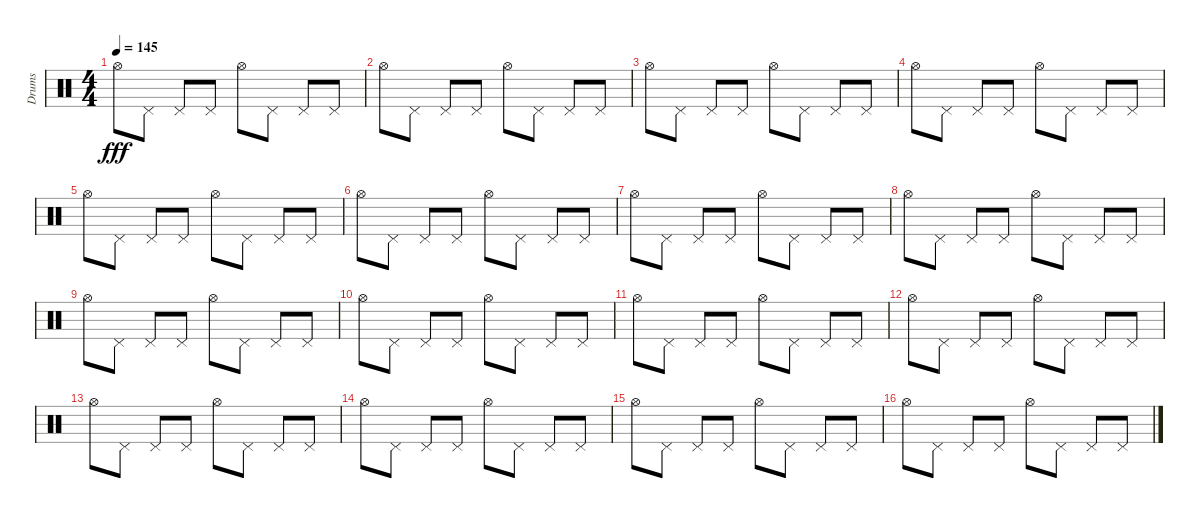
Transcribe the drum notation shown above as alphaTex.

\track ("Drums" "Drums") {instrument percussion}
\staff {score}
\articulation defaults
\ts (4 4)
\tempo 145
\clef neutral
\ks c "Hi-Hat (open)".8{dy fff} "Pedal Hi-Hat (hit)".8 "Pedal Hi-Hat (hit)".8 "Pedal Hi-Hat (hit)".8 "Hi-Hat (open)".8 "Pedal Hi-Hat (hit)".8 "Pedal Hi-Hat (hit)".8 "Pedal Hi-Hat (hit)".8
|
"Hi-Hat (open)".8 "Pedal Hi-Hat (hit)".8 "Pedal Hi-Hat (hit)".8 "Pedal Hi-Hat (hit)".8 "Hi-Hat (open)".8 "Pedal Hi-Hat (hit)".8 "Pedal Hi-Hat (hit)".8 "Pedal Hi-Hat (hit)".8 |
"Hi-Hat (open)".8 "Pedal Hi-Hat (hit)".8 "Pedal Hi-Hat (hit)".8 "Pedal Hi-Hat (hit)".8 "Hi-Hat (open)".8 "Pedal Hi-Hat (hit)".8 "Pedal Hi-Hat (hit)".8 "Pedal Hi-Hat (hit)".8 |
"Hi-Hat (open)".8 "Pedal Hi-Hat (hit)".8 "Pedal Hi-Hat (hit)".8 "Pedal Hi-Hat (hit)".8 "Hi-Hat (open)".8 "Pedal Hi-Hat (hit)".8 "Pedal Hi-Hat (hit)".8 "Pedal Hi-Hat (hit)".8 |
"Hi-Hat (open)".8 "Pedal Hi-Hat (hit)".8 "Pedal Hi-Hat (hit)".8 "Pedal Hi-Hat (hit)".8 "Hi-Hat (open)".8 "Pedal Hi-Hat (hit)".8 "Pedal Hi-Hat (hit)".8 "Pedal Hi-Hat (hit)".8 |
"Hi-Hat (open)".8 "Pedal Hi-Hat (hit)".8 "Pedal Hi-Hat (hit)".8 "Pedal Hi-Hat (hit)".8 "Hi-Hat (open)".8 "Pedal Hi-Hat (hit)".8 "Pedal Hi-Hat (hit)".8 "Pedal Hi-Hat (hit)".8 |
"Hi-Hat (open)".8 "Pedal Hi-Hat (hit)".8 "Pedal Hi-Hat (hit)".8 "Pedal Hi-Hat (hit)".8 "Hi-Hat (open)".8 "Pedal Hi-Hat (hit)".8 "Pedal Hi-Hat (hit)".8 "Pedal Hi-Hat (hit)".8 |
"Hi-Hat (open)".8 "Pedal Hi-Hat (hit)".8 "Pedal Hi-Hat (hit)".8 "Pedal Hi-Hat (hit)".8 "Hi-Hat (open)".8 "Pedal Hi-Hat (hit)".8 "Pedal Hi-Hat (hit)".8 "Pedal Hi-Hat (hit)".8 |
"Hi-Hat (open)".8 "Pedal Hi-Hat (hit)".8 "Pedal Hi-Hat (hit)".8 "Pedal Hi-Hat (hit)".8 "Hi-Hat (open)".8 "Pedal Hi-Hat (hit)".8 "Pedal Hi-Hat (hit)".8 "Pedal Hi-Hat (hit)".8 |
"Hi-Hat (open)".8 "Pedal Hi-Hat (hit)".8 "Pedal Hi-Hat (hit)".8 "Pedal Hi-Hat (hit)".8 "Hi-Hat (open)".8 "Pedal Hi-Hat (hit)".8 "Pedal Hi-Hat (hit)".8 "Pedal Hi-Hat (hit)".8 |
"Hi-Hat (open)".8 "Pedal Hi-Hat (hit)".8 "Pedal Hi-Hat (hit)".8 "Pedal Hi-Hat (hit)".8 "Hi-Hat (open)".8 "Pedal Hi-Hat (hit)".8 "Pedal Hi-Hat (hit)".8 "Pedal Hi-Hat (hit)".8 |
"Hi-Hat (open)".8 "Pedal Hi-Hat (hit)".8 "Pedal Hi-Hat (hit)".8 "Pedal Hi-Hat (hit)".8 "Hi-Hat (open)".8 "Pedal Hi-Hat (hit)".8 "Pedal Hi-Hat (hit)".8 "Pedal Hi-Hat (hit)".8 |
"Hi-Hat (open)".8 "Pedal Hi-Hat (hit)".8 "Pedal Hi-Hat (hit)".8 "Pedal Hi-Hat (hit)".8 "Hi-Hat (open)".8 "Pedal Hi-Hat (hit)".8 "Pedal Hi-Hat (hit)".8 "Pedal Hi-Hat (hit)".8 |
"Hi-Hat (open)".8 "Pedal Hi-Hat (hit)".8 "Pedal Hi-Hat (hit)".8 "Pedal Hi-Hat (hit)".8 "Hi-Hat (open)".8 "Pedal Hi-Hat (hit)".8 "Pedal Hi-Hat (hit)".8 "Pedal Hi-Hat (hit)".8 |
"Hi-Hat (open)".8 "Pedal Hi-Hat (hit)".8 "Pedal Hi-Hat (hit)".8 "Pedal Hi-Hat (hit)".8 "Hi-Hat (open)".8 "Pedal Hi-Hat (hit)".8 "Pedal Hi-Hat (hit)".8 "Pedal Hi-Hat (hit)".8 |
"Hi-Hat (open)".8 "Pedal Hi-Hat (hit)".8 "Pedal Hi-Hat (hit)".8 "Pedal Hi-Hat (hit)".8 "Hi-Hat (open)".8 "Pedal Hi-Hat (hit)".8 "Pedal Hi-Hat (hit)".8 "Pedal Hi-Hat (hit)".8
